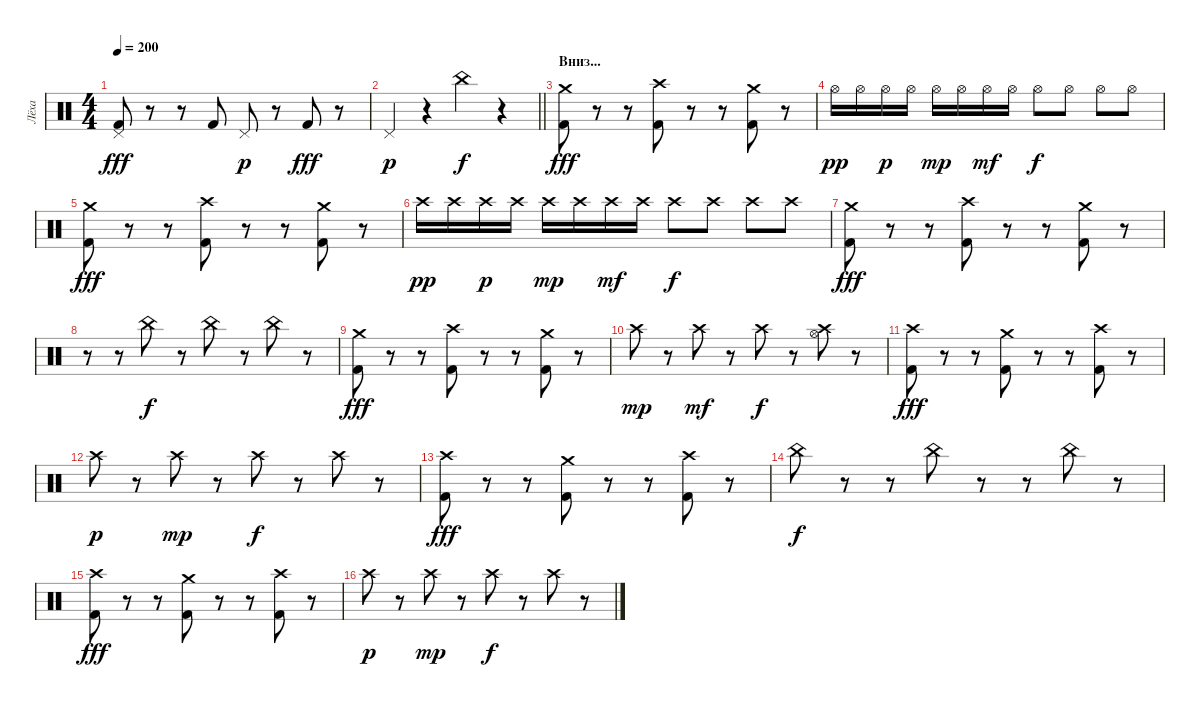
\track ("Лёха" "Лёха") {instrument percussion}
\staff {score}
\articulation defaults
\ts (4 4)
\tempo 200
\clef neutral
\ks c
("Pedal Hi-Hat (hit)" "Kick (hit) 2").8{dy fff} r.8 r.8 "Kick (hit) 2".8 "Pedal Hi-Hat (hit)".8{dy p} r.8 "Kick (hit) 2".8{dy fff} r.8 |
\barLineRight lightlight "Pedal Hi-Hat (hit)".4{dy p}
r.4 "China (hit)".4{dy f} r.4 |
\section ("" "Вниз...")
("Crash medium (hit)" "Kick (hit) 2").8{dy fff volume 12} r.8 r.8 ("Crash high (hit)" "Kick (hit) 2").8 r.8 r.8 ("Crash medium (hit)" "Kick (hit) 2").8 r.8 |
"Hi-Hat (open)".16{dy pp} "Hi-Hat (open)".16 "Hi-Hat (open)".16{dy p} "Hi-Hat (open)".16 "Hi-Hat (open)".16{dy mp} "Hi-Hat (open)".16 "Hi-Hat (open)".16{dy mf} "Hi-Hat (open)".16 "Hi-Hat (open)".8{dy f} "Hi-Hat (open)".8 "Hi-Hat (open)".8 "Hi-Hat (open)".8 |
("Crash medium (hit)" "Kick (hit) 2").8{dy fff} r.8 r.8 ("Crash high (hit)" "Kick (hit) 2").8 r.8 r.8 ("Crash medium (hit)" "Kick (hit) 2").8 r.8 |
"Crash high (hit)".16{dy pp} "Crash high (hit)".16 "Crash high (hit)".16{dy p} "Crash high (hit)".16 "Crash high (hit)".16{dy mp} "Crash high (hit)".16 "Crash high (hit)".16{dy mf} "Crash high (hit)".16 "Crash high (hit)".8{dy f} "Crash high (hit)".8 "Crash high (hit)".8 "Crash high (hit)".8 |
("Crash medium (hit)" "Kick (hit) 2").8{dy fff} r.8 r.8 ("Crash high (hit)" "Kick (hit) 2").8 r.8 r.8 ("Crash medium (hit)" "Kick (hit) 2").8 r.8 |
r.8 r.8 "China (hit)".8{dy f} r.8 "China (hit)".8 r.8 "China (hit)".8 r.8 |
("Crash medium (hit)" "Kick (hit) 2").8{dy fff} r.8 r.8 ("Crash high (hit)" "Kick (hit) 2").8 r.8 r.8 ("Crash medium (hit)" "Kick (hit) 2").8 r.8 |
"Crash high (hit)".8{dy mp} r.8 "Crash high (hit)".8{dy mf} r.8 "Crash high (hit)".8{dy f} r.8 ("Crash high (hit)" "Hi-Hat (open)").8 r.8 |
("Crash high (hit)" "Kick (hit) 2").8{dy fff} r.8 r.8 ("Crash medium (hit)" "Kick (hit) 2").8 r.8 r.8 ("Crash high (hit)" "Kick (hit) 2").8 r.8 |
"Crash high (hit)".8{dy p} r.8 "Crash high (hit)".8{dy mp} r.8 "Crash high (hit)".8{dy f} r.8 "Crash high (hit)".8 r.8 |
("Crash high (hit)" "Kick (hit) 2").8{dy fff} r.8 r.8 ("Crash medium (hit)" "Kick (hit) 2").8 r.8 r.8 ("Crash high (hit)" "Kick (hit) 2").8 r.8 |
"China (hit)".8{dy f} r.8 r.8 "China (hit)".8 r.8 r.8 "China (hit)".8 r.8 |
("Crash high (hit)" "Kick (hit) 2").8{dy fff} r.8 r.8 ("Crash medium (hit)" "Kick (hit) 2").8 r.8 r.8 ("Crash high (hit)" "Kick (hit) 2").8 r.8 |
"Crash high (hit)".8{dy p} r.8 "Crash high (hit)".8{dy mp} r.8 "Crash high (hit)".8{dy f} r.8 "Crash high (hit)".8 r.8
